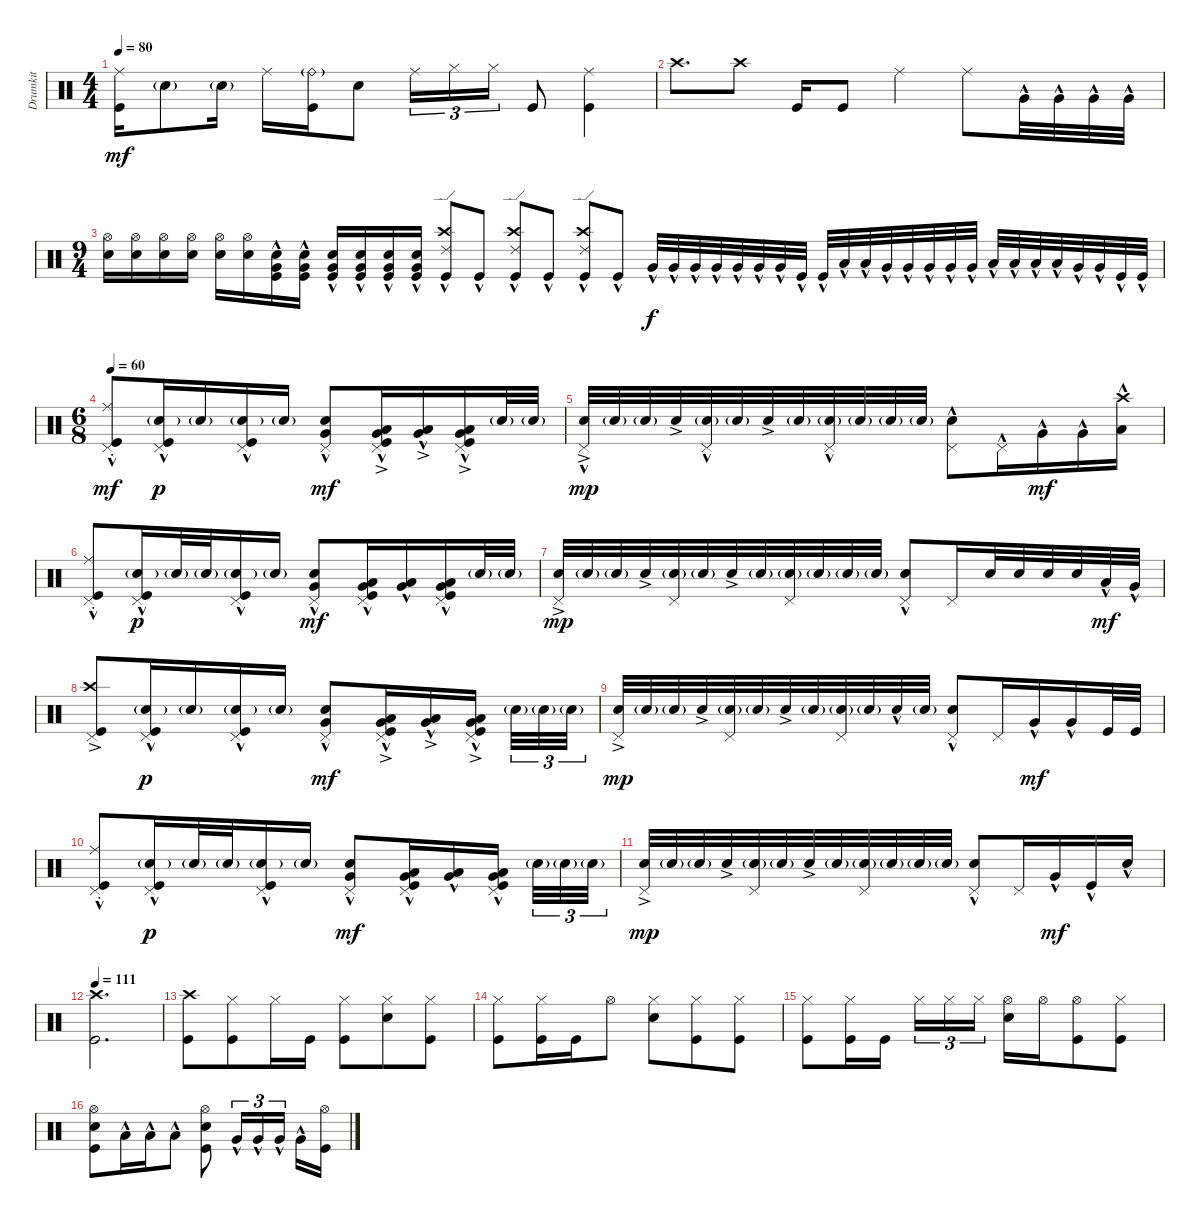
\track ("Drumkit" "Drumkit") {instrument percussion}
\staff {score}
\articulation defaults
\ts (4 4)
\tempo 80
\clef neutral
\ks c
("Kick (hit)" "Ride (middle)").16{dy mf} "Snare (hit) 2"{g}.8 "Snare (hit) 2"{g}.16 "Ride (middle)".16 ("Kick (hit)" "Ride (bell)"{g}).16 "Snare (hit) 2".8 "Ride (middle)".16{tu (3 2)} "Hi-Hat (closed)".16{tu (3 2)} "Hi-Hat (closed)".16{tu (3 2)} "Kick (hit)".8 ("Kick (hit)" "Ride (middle)").4 |
"Crash high (hit)".8{d} "Crash high (hit)".8 "Kick (hit)".16 "Kick (hit)".8 "Ride (middle)".4 "Ride (middle)".8 "Very Low Tom (hit)"{hac}.32 "Very Low Tom (hit)"{hac}.32 "Very Low Tom (hit)"{hac}.32 "Very Low Tom (hit)"{hac}.32 |
\ts (9 4)
("Snare (hit) 2" "Hi-Hat (open)").16 ("Snare (hit) 2" "Hi-Hat (open)").16 ("Snare (hit) 2" "Hi-Hat (open)").16 ("Snare (hit) 2" "Hi-Hat (open)").16 ("Snare (hit) 2" "Hi-Hat (open)").16 ("Snare (hit) 2" "Hi-Hat (open)").16 ("Very Low Tom (hit)"{hac} "Kick (hit)"{hac} "Snare (hit) 2"{hac}).16 ("Kick (hit)"{hac} "Very Low Tom (hit)"{hac} "Snare (hit) 2"{hac}).16 ("Very Low Tom (hit)"{hac} "Kick (hit)"{hac} "Snare (hit) 2"{hac}).16 ("Kick (hit)"{hac} "Very Low Tom (hit)"{hac} "Snare (hit) 2"{hac}).16 ("Kick (hit)"{hac} "Very Low Tom (hit)"{hac} "Snare (hit) 2"{hac}).16 ("Snare (hit) 2"{hac} "Very Low Tom (hit)"{hac} "Kick (hit)"{hac}).16 ("Kick (hit)"{hac} "Ride (edge) 2"{hac} "Crash high (hit)"{hac}).8 "Kick (hit)"{hac}.8 ("Kick (hit)"{hac} "Ride (edge) 2"{hac} "Crash high (hit)"{hac}).8 "Kick (hit)"{hac}.8 ("Kick (hit)"{hac} "Ride (edge) 2"{hac} "Crash high (hit)"{hac}).8 "Kick (hit)"{hac}.8 "Very Low Tom (hit)"{hac}.32{dy f} "Very Low Tom (hit)"{hac}.32 "Very Low Tom (hit)"{hac}.32 "Very Low Tom (hit)"{hac}.32 "Very Low Tom (hit)"{hac}.32 "Very Low Tom (hit)"{hac}.32 "Very Low Tom (hit)"{hac}.32 "Kick (hit)"{hac}.32 "Kick (hit)"{hac}.32 "Low Tom (hit)"{hac}.32 "Low Tom (hit)"{hac}.32 "Very Low Tom (hit)"{hac}.32 "Very Low Tom (hit)"{hac}.32 "Very Low Tom (hit)"{hac}.32 "Very Low Tom (hit)"{hac}.32 "Very Low Tom (hit)"{hac}.32 "Low Tom (hit)"{hac}.32 "Low Tom (hit)"{hac}.32 "Low Tom (hit)"{hac}.32 "Low Tom (hit)"{hac}.32 "Very Low Tom (hit)"{hac}.32 "Very Low Tom (hit)"{hac}.32 "Kick (hit)"{hac}.32 "Kick (hit)"{hac}.32 |
\ts (6 8)
\tempo 60
("Kick (hit)" "Ride (middle)"{hac st} "Pedal Hi-Hat (hit)"{hac}).8{dy mf} ("Kick (hit)"{hac} "Snare (hit) 2"{g} "Pedal Hi-Hat (hit)"{hac}).16{dy p} "Snare (hit) 2"{g}.16 ("Kick (hit)"{hac} "Snare (hit) 2"{g} "Pedal Hi-Hat (hit)"{hac}).16 "Snare (hit) 2"{g}.16 ("Very Low Tom (hit)"{hac} "Snare (hit) 2" "Pedal Hi-Hat (hit)"{hac}).8{dy mf} ("Kick (hit)"{hac} "Very Low Tom (hit)"{hac} "Pedal Hi-Hat (hit)"{hac} "Low Tom (hit)"{ac}).16 ("Very Low Tom (hit)"{hac} "Low Tom (hit)"{ac}).16 ("Kick (hit)"{hac} "Very Low Tom (hit)"{hac} "Pedal Hi-Hat (hit)"{hac} "Low Tom (hit)"{ac}).16 "Snare (hit) 2"{g}.32 "Snare (hit) 2"{g}.32 |
("Snare (hit) 2"{ac} "Pedal Hi-Hat (hit)"{hac}).32{dy mp} "Snare (hit) 2"{g}.32 "Snare (hit) 2"{g}.32 "Snare (hit) 2"{ac}.32 ("Snare (hit) 2"{g} "Pedal Hi-Hat (hit)"{hac}).32 "Snare (hit) 2"{g}.32 "Snare (hit) 2"{ac}.32 "Snare (hit) 2"{g}.32 ("Snare (hit) 2"{g} "Pedal Hi-Hat (hit)"{hac}).32 "Snare (hit) 2"{g}.32 "Snare (hit) 2"{g}.32 "Snare (hit) 2"{g}.32 ("Snare (hit) 2"{hac} "Pedal Hi-Hat (hit)"{hac}).8 "Pedal Hi-Hat (hit)"{hac}.16 "Very Low Tom (hit)"{hac}.16{dy mf} "Very Low Tom (hit)"{hac}.16 ("Low Tom (hit)"{hac} "Crash high (hit)").16 |
("Kick (hit)" "Ride (middle)"{hac st} "Pedal Hi-Hat (hit)").8 ("Kick (hit)"{hac} "Snare (hit) 2"{g} "Pedal Hi-Hat (hit)").16{dy p} "Snare (hit) 2"{g}.32 "Snare (hit) 2"{g}.32 ("Kick (hit)"{hac} "Snare (hit) 2"{g} "Pedal Hi-Hat (hit)").16 "Snare (hit) 2"{g}.16 ("Very Low Tom (hit)"{hac} "Snare (hit) 2" "Pedal Hi-Hat (hit)").8{dy mf} ("Kick (hit)"{hac} "Very Low Tom (hit)"{hac} "Pedal Hi-Hat (hit)" "Low Tom (hit)"{hac}).16 ("Very Low Tom (hit)"{hac} "Low Tom (hit)"{hac}).16 ("Kick (hit)"{hac} "Very Low Tom (hit)"{hac} "Pedal Hi-Hat (hit)" "Low Tom (hit)"{hac}).16 "Snare (hit) 2"{g}.32 "Snare (hit) 2"{g}.32 |
("Snare (hit) 2"{ac} "Pedal Hi-Hat (hit)").32{dy mp} "Snare (hit) 2"{g}.32 "Snare (hit) 2"{g}.32 "Snare (hit) 2"{ac}.32 ("Snare (hit) 2"{g} "Pedal Hi-Hat (hit)").32 "Snare (hit) 2"{g}.32 "Snare (hit) 2"{ac}.32 "Snare (hit) 2"{g}.32 ("Snare (hit) 2"{g} "Pedal Hi-Hat (hit)").32 "Snare (hit) 2"{g}.32 "Snare (hit) 2"{g}.32 "Snare (hit) 2"{g}.32 ("Snare (hit) 2"{hac} "Pedal Hi-Hat (hit)").8 "Pedal Hi-Hat (hit)".16 "Snare (hit) 2".32 "Snare (hit) 2".32 "Snare (hit) 2".32 "Snare (hit) 2".32 "Low Tom (hit)"{hac}.32{dy mf} "Very Low Tom (hit)"{hac}.32 |
("Kick (hit)" "Pedal Hi-Hat (hit)" "Crash high (hit)"{ac}).8 ("Kick (hit)"{hac} "Snare (hit) 2"{g} "Pedal Hi-Hat (hit)").16{dy p} "Snare (hit) 2"{g}.16 ("Kick (hit)"{hac} "Snare (hit) 2"{g} "Pedal Hi-Hat (hit)").16 "Snare (hit) 2"{g}.16 ("Very Low Tom (hit)"{hac} "Snare (hit) 2" "Pedal Hi-Hat (hit)").8{dy mf} ("Kick (hit)"{hac} "Very Low Tom (hit)"{hac} "Pedal Hi-Hat (hit)" "Low Tom (hit)"{ac}).16 ("Very Low Tom (hit)"{hac} "Low Tom (hit)"{ac}).16 ("Kick (hit)"{hac} "Very Low Tom (hit)"{hac} "Pedal Hi-Hat (hit)" "Low Tom (hit)"{ac}).16 "Snare (hit) 2"{g}.32{tu (3 2)} "Snare (hit) 2"{g}.32{tu (3 2)} "Snare (hit) 2"{g}.32{tu (3 2)} |
("Snare (hit) 2"{ac} "Pedal Hi-Hat (hit)").32{dy mp} "Snare (hit) 2"{g}.32 "Snare (hit) 2"{g}.32 "Snare (hit) 2"{ac}.32 ("Snare (hit) 2"{g} "Pedal Hi-Hat (hit)").32 "Snare (hit) 2"{g}.32 "Snare (hit) 2"{ac}.32 "Snare (hit) 2"{g}.32 ("Snare (hit) 2"{g} "Pedal Hi-Hat (hit)").32 "Snare (hit) 2"{g}.32 "Snare (hit) 2"{hac}.32 "Snare (hit) 2"{g}.32 ("Snare (hit) 2"{hac} "Pedal Hi-Hat (hit)").8 "Pedal Hi-Hat (hit)".16 "Very Low Tom (hit)"{hac}.16{dy mf} "Very Low Tom (hit)"{hac}.16 "Kick (hit)".32 "Kick (hit)".32 |
("Kick (hit)" "Ride (middle)"{hac st} "Pedal Hi-Hat (hit)").8 ("Kick (hit)"{hac} "Snare (hit) 2"{g} "Pedal Hi-Hat (hit)").16{dy p} "Snare (hit) 2"{g}.32 "Snare (hit) 2"{g}.32 ("Kick (hit)"{hac} "Snare (hit) 2"{g} "Pedal Hi-Hat (hit)").16 "Snare (hit) 2"{g}.16 ("Very Low Tom (hit)"{hac} "Snare (hit) 2" "Pedal Hi-Hat (hit)").8{dy mf} ("Kick (hit)"{hac} "Very Low Tom (hit)"{hac} "Pedal Hi-Hat (hit)" "Low Tom (hit)"{hac}).16 ("Very Low Tom (hit)"{hac} "Low Tom (hit)"{hac}).16 ("Kick (hit)"{hac} "Very Low Tom (hit)"{hac} "Pedal Hi-Hat (hit)" "Low Tom (hit)"{hac}).16 "Snare (hit) 2"{g}.32{tu (3 2)} "Snare (hit) 2"{g}.32{tu (3 2)} "Snare (hit) 2"{g}.32{tu (3 2)} |
("Snare (hit) 2"{ac} "Pedal Hi-Hat (hit)").32{dy mp} "Snare (hit) 2"{g}.32 "Snare (hit) 2"{g}.32 "Snare (hit) 2"{ac}.32 ("Snare (hit) 2"{g} "Pedal Hi-Hat (hit)").32 "Snare (hit) 2"{g}.32 "Snare (hit) 2"{ac}.32 "Snare (hit) 2"{g}.32 ("Snare (hit) 2"{g} "Pedal Hi-Hat (hit)").32 "Snare (hit) 2"{g}.32 "Snare (hit) 2"{g}.32 "Snare (hit) 2"{g}.32 ("Snare (hit) 2"{hac} "Pedal Hi-Hat (hit)").8 "Pedal Hi-Hat (hit)".16 "Very Low Tom (hit)"{hac}.16{dy mf} "Kick (hit)"{hac}.16 "Snare (hit) 2"{hac}.16 |
\tempo 111
("Crash high (hit)" "Kick (hit)").2{d} |
("Kick (hit)" "Crash high (hit)").8 ("Hi-Hat (closed)" "Kick (hit)").8 "Hi-Hat (closed)".16 "Kick (hit)".16 ("Hi-Hat (closed)" "Kick (hit)").8 ("Hi-Hat (closed)" "Snare (hit) 2").8 ("Hi-Hat (closed)" "Kick (hit)").8 |
("Hi-Hat (closed)" "Kick (hit)").8 ("Kick (hit)" "Hi-Hat (closed)").16 "Kick (hit)".16 "Hi-Hat (open)".8 ("Snare (hit) 2" "Hi-Hat (closed)").8 ("Kick (hit)" "Hi-Hat (closed)").8 ("Kick (hit)" "Hi-Hat (closed)").8 |
("Hi-Hat (closed)" "Kick (hit)").8 ("Kick (hit)" "Hi-Hat (closed)").16 "Kick (hit)".16 "Hi-Hat (closed)".16{tu (3 2)} "Hi-Hat (closed)".16{tu (3 2)} "Hi-Hat (closed)".16{tu (3 2)} ("Snare (hit) 2" "Hi-Hat (open)").16 "Hi-Hat (open)".16 ("Kick (hit)" "Hi-Hat (open)").8 ("Kick (hit)" "Hi-Hat (closed)").8 |
("Hi-Hat (open)" "Kick (hit)" "Snare (hit) 2").8 "Low Tom (hit)"{hac}.16 "Low Tom (hit)"{hac}.16 "Low Tom (hit)"{hac}.8 ("Hi-Hat (open)" "Kick (hit)" "Snare (hit) 2").8 "Very Low Tom (hit)"{hac}.16{tu (3 2)} "Very Low Tom (hit)"{hac}.16{tu (3 2)} "Very Low Tom (hit)"{hac}.16{tu (3 2)} "Very Low Tom (hit)"{hac}.16 ("Kick (hit)" "Hi-Hat (open)").16
